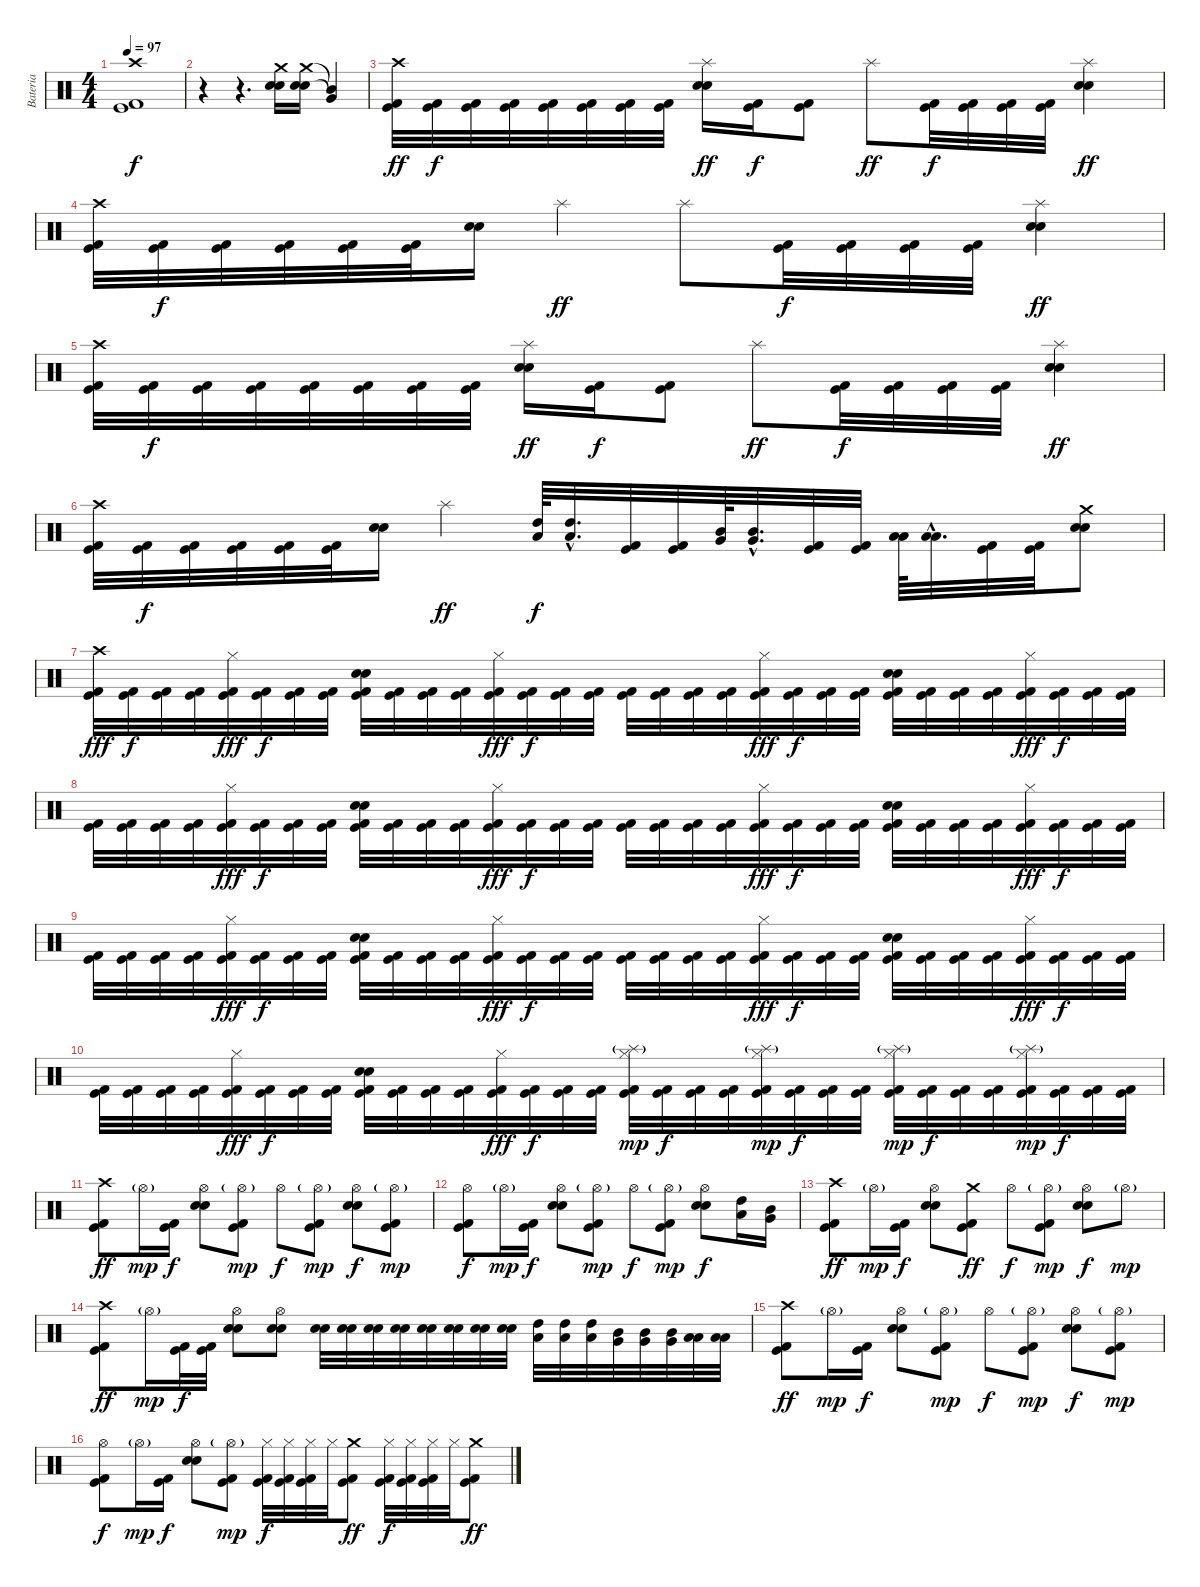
\track ("Bateria" "Bateria") {instrument percussion}
\staff {score}
\articulation defaults
\ts (4 4)
\tempo 97
\clef neutral
\ks c
("Crash high (hit)" "Kick (hit) 2" "Kick (hit)").1{dy f} |
r.4 r.4{d} ("Crash medium (hit)" "Electric Snare (hit)" "Snare (hit) 2").16 ("Crash medium (hit)" "Electric Snare (hit)" "Snare (hit) 2").16 ("Mid Tom (hit)"{t} "Very Low Tom (hit)"{t}).4 |
("Crash high (hit)" "Kick (hit) 2" "Kick (hit)").32{dy ff} ("Kick (hit) 2" "Kick (hit)").32{dy f} ("Kick (hit) 2" "Kick (hit)").32 ("Kick (hit) 2" "Kick (hit)").32 ("Kick (hit) 2" "Kick (hit)").32 ("Kick (hit) 2" "Kick (hit)").32 ("Kick (hit) 2" "Kick (hit)").32 ("Kick (hit) 2" "Kick (hit)").32 ("Splash (hit)" "Electric Snare (hit)" "Snare (hit) 2").16{dy ff} ("Kick (hit) 2" "Kick (hit)").16{dy f} ("Kick (hit) 2" "Kick (hit)").8 "Splash (hit)".8{dy ff} ("Kick (hit) 2" "Kick (hit)").32{dy f} ("Kick (hit) 2" "Kick (hit)").32 ("Kick (hit) 2" "Kick (hit)").32 ("Kick (hit) 2" "Kick (hit)").32 ("Splash (hit)" "Electric Snare (hit)" "Snare (hit) 2").4{dy ff} |
("Crash high (hit)" "Kick (hit) 2" "Kick (hit)").32 ("Kick (hit) 2" "Kick (hit)").32{dy f} ("Kick (hit) 2" "Kick (hit)").32 ("Kick (hit) 2" "Kick (hit)").32 ("Kick (hit) 2" "Kick (hit)").32 ("Kick (hit) 2" "Kick (hit)").32 ("Electric Snare (hit)" "Snare (hit) 2").16 "Splash (hit)".4{dy ff} "Splash (hit)".8 ("Kick (hit) 2" "Kick (hit)").32{dy f} ("Kick (hit) 2" "Kick (hit)").32 ("Kick (hit) 2" "Kick (hit)").32 ("Kick (hit) 2" "Kick (hit)").32 ("Splash (hit)" "Electric Snare (hit)" "Snare (hit) 2").4{dy ff} |
("Crash high (hit)" "Kick (hit) 2" "Kick (hit)").32 ("Kick (hit) 2" "Kick (hit)").32{dy f} ("Kick (hit) 2" "Kick (hit)").32 ("Kick (hit) 2" "Kick (hit)").32 ("Kick (hit) 2" "Kick (hit)").32 ("Kick (hit) 2" "Kick (hit)").32 ("Kick (hit) 2" "Kick (hit)").32 ("Kick (hit) 2" "Kick (hit)").32 ("Splash (hit)" "Electric Snare (hit)" "Snare (hit) 2").16{dy ff} ("Kick (hit) 2" "Kick (hit)").16{dy f} ("Kick (hit) 2" "Kick (hit)").8 "Splash (hit)".8{dy ff} ("Kick (hit) 2" "Kick (hit)").32{dy f} ("Kick (hit) 2" "Kick (hit)").32 ("Kick (hit) 2" "Kick (hit)").32 ("Kick (hit) 2" "Kick (hit)").32 ("Splash (hit)" "Electric Snare (hit)" "Snare (hit) 2").4{dy ff} |
("Crash high (hit)" "Kick (hit) 2" "Kick (hit)").32 ("Kick (hit) 2" "Kick (hit)").32{dy f} ("Kick (hit) 2" "Kick (hit)").32 ("Kick (hit) 2" "Kick (hit)").32 ("Kick (hit) 2" "Kick (hit)").32 ("Kick (hit) 2" "Kick (hit)").32 ("Electric Snare (hit)" "Snare (hit) 2").16 "Splash (hit)".4{dy ff} ("High Tom (hit)" "Low Tom (hit)").64{dy f} ("High Tom (hit)"{hac} "Low Tom (hit)"{hac}).32{d} ("Kick (hit) 2" "Kick (hit)").32 ("Kick (hit) 2" "Kick (hit)").32 ("Mid Tom (hit)" "Very Low Tom (hit)").64 ("Mid Tom (hit)"{hac} "Very Low Tom (hit)"{hac}).32{d} ("Kick (hit) 2" "Kick (hit)").32 ("Kick (hit) 2" "Kick (hit)").32 ("Low Tom (hit)" "Low Floor Tom (hit)").64 ("Low Tom (hit)"{hac} "Low Floor Tom (hit)"{hac}).32{d} ("Kick (hit) 2" "Kick (hit)").32 ("Kick (hit) 2" "Kick (hit)").32 ("Crash medium (hit)" "Electric Snare (hit)" "Snare (hit) 2").8 |
("Crash high (hit)" "Kick (hit) 2" "Kick (hit)").32{dy fff} ("Kick (hit) 2" "Kick (hit)").32{dy f} ("Kick (hit) 2" "Kick (hit)").32 ("Kick (hit) 2" "Kick (hit)").32 ("Hi-Hat (closed)" "Kick (hit) 2" "Kick (hit)").32{dy fff} ("Kick (hit) 2" "Kick (hit)").32{dy f} ("Kick (hit) 2" "Kick (hit)").32 ("Kick (hit) 2" "Kick (hit)").32 ("Electric Snare (hit)" "Snare (hit) 2" "Kick (hit) 2" "Kick (hit)").32 ("Kick (hit) 2" "Kick (hit)").32 ("Kick (hit) 2" "Kick (hit)").32 ("Kick (hit) 2" "Kick (hit)").32 ("Hi-Hat (closed)" "Kick (hit) 2" "Kick (hit)").32{dy fff} ("Kick (hit) 2" "Kick (hit)").32{dy f} ("Kick (hit) 2" "Kick (hit)").32 ("Kick (hit) 2" "Kick (hit)").32 ("Kick (hit) 2" "Kick (hit)").32 ("Kick (hit) 2" "Kick (hit)").32 ("Kick (hit) 2" "Kick (hit)").32 ("Kick (hit) 2" "Kick (hit)").32 ("Hi-Hat (closed)" "Kick (hit) 2" "Kick (hit)").32{dy fff} ("Kick (hit) 2" "Kick (hit)").32{dy f} ("Kick (hit) 2" "Kick (hit)").32 ("Kick (hit) 2" "Kick (hit)").32 ("Electric Snare (hit)" "Snare (hit) 2" "Kick (hit) 2" "Kick (hit)").32 ("Kick (hit) 2" "Kick (hit)").32 ("Kick (hit) 2" "Kick (hit)").32 ("Kick (hit) 2" "Kick (hit)").32 ("Hi-Hat (closed)" "Kick (hit) 2" "Kick (hit)").32{dy fff} ("Kick (hit) 2" "Kick (hit)").32{dy f} ("Kick (hit) 2" "Kick (hit)").32 ("Kick (hit) 2" "Kick (hit)").32 |
("Kick (hit) 2" "Kick (hit)").32 ("Kick (hit) 2" "Kick (hit)").32 ("Kick (hit) 2" "Kick (hit)").32 ("Kick (hit) 2" "Kick (hit)").32 ("Hi-Hat (closed)" "Kick (hit) 2" "Kick (hit)").32{dy fff} ("Kick (hit) 2" "Kick (hit)").32{dy f} ("Kick (hit) 2" "Kick (hit)").32 ("Kick (hit) 2" "Kick (hit)").32 ("Electric Snare (hit)" "Snare (hit) 2" "Kick (hit) 2" "Kick (hit)").32 ("Kick (hit) 2" "Kick (hit)").32 ("Kick (hit) 2" "Kick (hit)").32 ("Kick (hit) 2" "Kick (hit)").32 ("Hi-Hat (closed)" "Kick (hit) 2" "Kick (hit)").32{dy fff} ("Kick (hit) 2" "Kick (hit)").32{dy f} ("Kick (hit) 2" "Kick (hit)").32 ("Kick (hit) 2" "Kick (hit)").32 ("Kick (hit) 2" "Kick (hit)").32 ("Kick (hit) 2" "Kick (hit)").32 ("Kick (hit) 2" "Kick (hit)").32 ("Kick (hit) 2" "Kick (hit)").32 ("Hi-Hat (closed)" "Kick (hit) 2" "Kick (hit)").32{dy fff} ("Kick (hit) 2" "Kick (hit)").32{dy f} ("Kick (hit) 2" "Kick (hit)").32 ("Kick (hit) 2" "Kick (hit)").32 ("Electric Snare (hit)" "Snare (hit) 2" "Kick (hit) 2" "Kick (hit)").32 ("Kick (hit) 2" "Kick (hit)").32 ("Kick (hit) 2" "Kick (hit)").32 ("Kick (hit) 2" "Kick (hit)").32 ("Hi-Hat (closed)" "Kick (hit) 2" "Kick (hit)").32{dy fff} ("Kick (hit) 2" "Kick (hit)").32{dy f} ("Kick (hit) 2" "Kick (hit)").32 ("Kick (hit) 2" "Kick (hit)").32 |
("Kick (hit) 2" "Kick (hit)").32 ("Kick (hit) 2" "Kick (hit)").32 ("Kick (hit) 2" "Kick (hit)").32 ("Kick (hit) 2" "Kick (hit)").32 ("Hi-Hat (closed)" "Kick (hit) 2" "Kick (hit)").32{dy fff} ("Kick (hit) 2" "Kick (hit)").32{dy f} ("Kick (hit) 2" "Kick (hit)").32 ("Kick (hit) 2" "Kick (hit)").32 ("Electric Snare (hit)" "Snare (hit) 2" "Kick (hit) 2" "Kick (hit)").32 ("Kick (hit) 2" "Kick (hit)").32 ("Kick (hit) 2" "Kick (hit)").32 ("Kick (hit) 2" "Kick (hit)").32 ("Hi-Hat (closed)" "Kick (hit) 2" "Kick (hit)").32{dy fff} ("Kick (hit) 2" "Kick (hit)").32{dy f} ("Kick (hit) 2" "Kick (hit)").32 ("Kick (hit) 2" "Kick (hit)").32 ("Kick (hit) 2" "Kick (hit)").32 ("Kick (hit) 2" "Kick (hit)").32 ("Kick (hit) 2" "Kick (hit)").32 ("Kick (hit) 2" "Kick (hit)").32 ("Hi-Hat (closed)" "Kick (hit) 2" "Kick (hit)").32{dy fff} ("Kick (hit) 2" "Kick (hit)").32{dy f} ("Kick (hit) 2" "Kick (hit)").32 ("Kick (hit) 2" "Kick (hit)").32 ("Electric Snare (hit)" "Snare (hit) 2" "Kick (hit) 2" "Kick (hit)").32 ("Kick (hit) 2" "Kick (hit)").32 ("Kick (hit) 2" "Kick (hit)").32 ("Kick (hit) 2" "Kick (hit)").32 ("Hi-Hat (closed)" "Kick (hit) 2" "Kick (hit)").32{dy fff} ("Kick (hit) 2" "Kick (hit)").32{dy f} ("Kick (hit) 2" "Kick (hit)").32 ("Kick (hit) 2" "Kick (hit)").32 |
("Kick (hit) 2" "Kick (hit)").32 ("Kick (hit) 2" "Kick (hit)").32 ("Kick (hit) 2" "Kick (hit)").32 ("Kick (hit) 2" "Kick (hit)").32 ("Hi-Hat (closed)" "Kick (hit) 2" "Kick (hit)").32{dy fff} ("Kick (hit) 2" "Kick (hit)").32{dy f} ("Kick (hit) 2" "Kick (hit)").32 ("Kick (hit) 2" "Kick (hit)").32 ("Electric Snare (hit)" "Snare (hit) 2" "Kick (hit) 2" "Kick (hit)").32 ("Kick (hit) 2" "Kick (hit)").32 ("Kick (hit) 2" "Kick (hit)").32 ("Kick (hit) 2" "Kick (hit)").32 ("Hi-Hat (closed)" "Kick (hit) 2" "Kick (hit)").32{dy fff} ("Kick (hit) 2" "Kick (hit)").32{dy f} ("Kick (hit) 2" "Kick (hit)").32 ("Kick (hit) 2" "Kick (hit)").32 ("Hi-Hat (closed)" "Splash (hit)"{g} "Kick (hit) 2" "Kick (hit)").32{dy mp} ("Kick (hit) 2" "Kick (hit)").32{dy f} ("Kick (hit) 2" "Kick (hit)").32 ("Kick (hit) 2" "Kick (hit)").32 ("Hi-Hat (closed)" "Splash (hit)"{g} "Kick (hit) 2" "Kick (hit)").32{dy mp} ("Kick (hit) 2" "Kick (hit)").32{dy f} ("Kick (hit) 2" "Kick (hit)").32 ("Kick (hit) 2" "Kick (hit)").32 ("Hi-Hat (closed)" "Splash (hit)"{g} "Kick (hit) 2" "Kick (hit)").32{dy mp} ("Kick (hit) 2" "Kick (hit)").32{dy f} ("Kick (hit) 2" "Kick (hit)").32 ("Kick (hit) 2" "Kick (hit)").32 ("Hi-Hat (closed)" "Splash (hit)"{g} "Kick (hit) 2" "Kick (hit)").32{dy mp} ("Kick (hit) 2" "Kick (hit)").32{dy f} ("Kick (hit) 2" "Kick (hit)").32 ("Kick (hit) 2" "Kick (hit)").32 |
("Crash high (hit)" "Kick (hit) 2" "Kick (hit)").8{dy ff} "Hi-Hat (open)"{g}.16{dy mp} ("Kick (hit) 2" "Kick (hit)").16{dy f} ("Hi-Hat (open)" "Electric Snare (hit)" "Snare (hit) 2").8 ("Hi-Hat (open)"{g} "Kick (hit) 2" "Kick (hit)").8{dy mp} "Hi-Hat (open)".8{dy f} ("Hi-Hat (open)"{g} "Kick (hit) 2" "Kick (hit)").8{dy mp} ("Hi-Hat (open)" "Electric Snare (hit)" "Snare (hit) 2").8{dy f} ("Hi-Hat (open)"{g} "Kick (hit) 2" "Kick (hit)").8{dy mp} |
("Hi-Hat (open)" "Kick (hit) 2" "Kick (hit)").8{dy f} "Hi-Hat (open)"{g}.16{dy mp} ("Kick (hit) 2" "Kick (hit)").16{dy f} ("Hi-Hat (open)" "Electric Snare (hit)" "Snare (hit) 2").8 ("Hi-Hat (open)"{g} "Kick (hit) 2" "Kick (hit)").8{dy mp} "Hi-Hat (open)".8{dy f} ("Hi-Hat (open)"{g} "Kick (hit) 2" "Kick (hit)").8{dy mp} ("Hi-Hat (open)" "Electric Snare (hit)" "Snare (hit) 2").8{dy f} ("High Tom (hit)" "Low Tom (hit)").16 ("Mid Tom (hit)" "Very Low Tom (hit)").16 |
("Crash high (hit)" "Kick (hit) 2" "Kick (hit)").8{dy ff} "Hi-Hat (open)"{g}.16{dy mp} ("Kick (hit) 2" "Kick (hit)").16{dy f} ("Hi-Hat (open)" "Electric Snare (hit)" "Snare (hit) 2").8 ("Crash medium (hit)" "Kick (hit) 2" "Kick (hit)").8{dy ff} "Hi-Hat (open)".8{dy f} ("Hi-Hat (open)"{g} "Kick (hit) 2" "Kick (hit)").8{dy mp} ("Hi-Hat (open)" "Electric Snare (hit)" "Snare (hit) 2").8{dy f} "Hi-Hat (open)"{g}.8{dy mp} |
("Crash high (hit)" "Kick (hit) 2" "Kick (hit)").8{dy ff} "Hi-Hat (open)"{g}.16{dy mp} ("Kick (hit) 2" "Kick (hit)").32{dy f} ("Kick (hit) 2" "Kick (hit)").32 ("Hi-Hat (open)" "Electric Snare (hit)" "Snare (hit) 2").8 ("Hi-Hat (open)" "Electric Snare (hit)" "Snare (hit) 2").8 ("Electric Snare (hit)" "Snare (hit) 2").32 ("Electric Snare (hit)" "Snare (hit) 2").32 ("Electric Snare (hit)" "Snare (hit) 2").32 ("Electric Snare (hit)" "Snare (hit) 2").32 ("Electric Snare (hit)" "Snare (hit) 2").32 ("Electric Snare (hit)" "Snare (hit) 2").32 ("Electric Snare (hit)" "Snare (hit) 2").32 ("Electric Snare (hit)" "Snare (hit) 2").32 ("High Tom (hit)" "Low Tom (hit)").32 ("High Tom (hit)" "Low Tom (hit)").32 ("High Tom (hit)" "Low Tom (hit)").32 ("Mid Tom (hit)" "Very Low Tom (hit)").32 ("Mid Tom (hit)" "Very Low Tom (hit)").32 ("Mid Tom (hit)" "Very Low Tom (hit)").32 ("Low Tom (hit)" "Low Floor Tom (hit)").32 ("Low Tom (hit)" "Low Floor Tom (hit)").32 |
("Crash high (hit)" "Kick (hit) 2" "Kick (hit)").8{dy ff} "Hi-Hat (open)"{g}.16{dy mp} ("Kick (hit) 2" "Kick (hit)").16{dy f} ("Hi-Hat (open)" "Electric Snare (hit)" "Snare (hit) 2").8 ("Hi-Hat (open)"{g} "Kick (hit) 2" "Kick (hit)").8{dy mp} "Hi-Hat (open)".8{dy f} ("Hi-Hat (open)"{g} "Kick (hit) 2" "Kick (hit)").8{dy mp} ("Hi-Hat (open)" "Electric Snare (hit)" "Snare (hit) 2").8{dy f} ("Hi-Hat (open)"{g} "Kick (hit) 2" "Kick (hit)").8{dy mp} |
("Hi-Hat (open)" "Kick (hit) 2" "Kick (hit)").8{dy f} "Hi-Hat (open)"{g}.16{dy mp} ("Kick (hit) 2" "Kick (hit)").16{dy f} ("Hi-Hat (open)" "Electric Snare (hit)" "Snare (hit) 2").8 ("Hi-Hat (open)"{g} "Kick (hit) 2" "Kick (hit)").8{dy mp} ("Hi-Hat (closed)" "Kick (hit) 2" "Kick (hit)").32{dy f} ("Hi-Hat (closed)" "Kick (hit) 2" "Kick (hit)").32 ("Hi-Hat (closed)" "Kick (hit) 2" "Kick (hit)").32 "Hi-Hat (closed)".32 ("Crash medium (hit)" "Kick (hit) 2" "Kick (hit)").8{dy ff} ("Hi-Hat (closed)" "Kick (hit) 2" "Kick (hit)").32{dy f} ("Hi-Hat (closed)" "Kick (hit) 2" "Kick (hit)").32 ("Hi-Hat (closed)" "Kick (hit) 2" "Kick (hit)").32 "Hi-Hat (closed)".32 ("Crash medium (hit)" "Kick (hit) 2" "Kick (hit)").8{dy ff}
